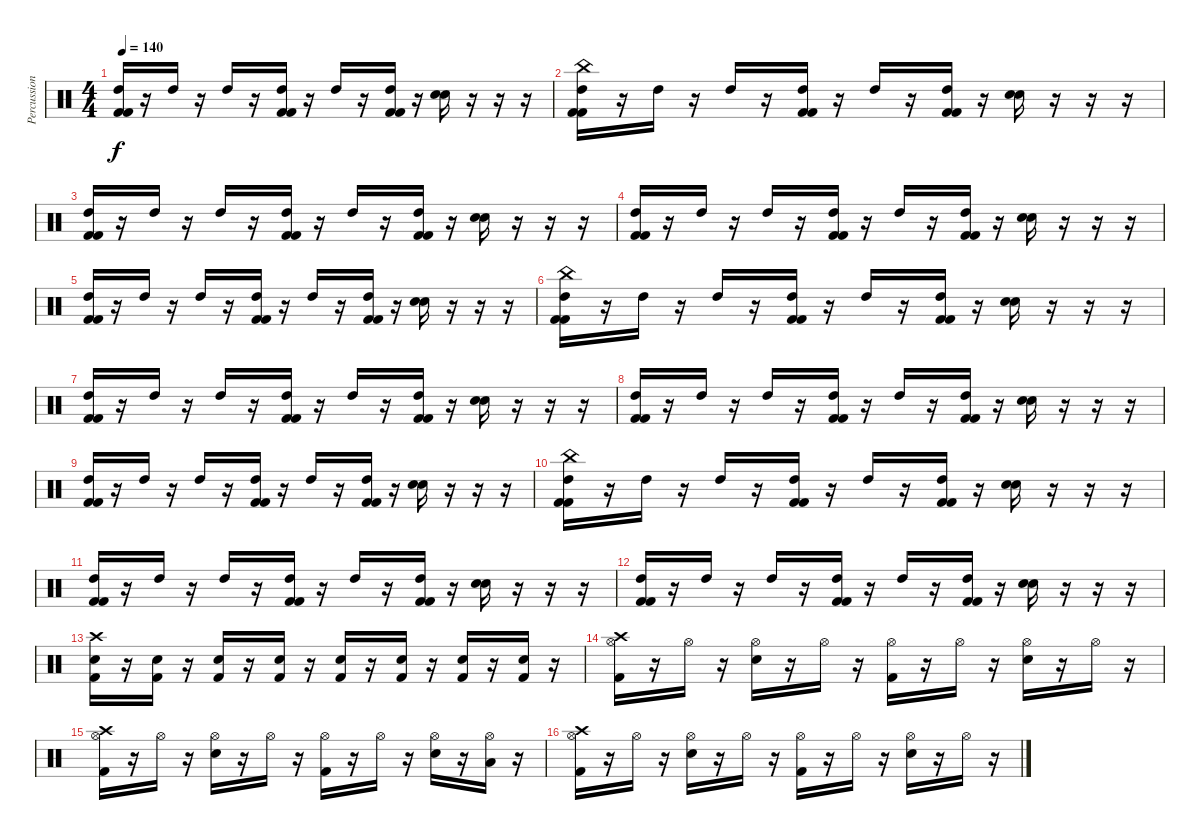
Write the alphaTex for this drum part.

\track ("Percussion" "Percussion") {instrument percussion}
\staff {score}
\articulation defaults
\ts (4 4)
\tempo 140
\clef neutral
\ks c
("High Tom (hit)" "Kick (hit) 2" "Kick (hit) 2").16{dy f} r.16 "High Tom (hit)".16 r.16 "High Tom (hit)".16 r.16 ("High Tom (hit)" "Kick (hit) 2" "Kick (hit) 2").16 r.16 "High Tom (hit)".16 r.16 ("High Tom (hit)" "Kick (hit) 2" "Kick (hit) 2").16 r.16 ("Electric Snare (hit)" "Electric Snare (hit)").16 r.16 r.16 r.16 |
("China (hit)" "High Tom (hit)" "Kick (hit) 2" "Kick (hit) 2").16 r.16 "High Tom (hit)".16 r.16 "High Tom (hit)".16 r.16 ("High Tom (hit)" "Kick (hit) 2" "Kick (hit) 2").16 r.16 "High Tom (hit)".16 r.16 ("High Tom (hit)" "Kick (hit) 2" "Kick (hit) 2").16 r.16 ("Electric Snare (hit)" "Electric Snare (hit)").16 r.16 r.16 r.16 |
("High Tom (hit)" "Kick (hit) 2" "Kick (hit) 2").16 r.16 "High Tom (hit)".16 r.16 "High Tom (hit)".16 r.16 ("High Tom (hit)" "Kick (hit) 2" "Kick (hit) 2").16 r.16 "High Tom (hit)".16 r.16 ("High Tom (hit)" "Kick (hit) 2" "Kick (hit) 2").16 r.16 ("Electric Snare (hit)" "Electric Snare (hit)").16 r.16 r.16 r.16 |
("High Tom (hit)" "Kick (hit) 2" "Kick (hit) 2").16 r.16 "High Tom (hit)".16 r.16 "High Tom (hit)".16 r.16 ("High Tom (hit)" "Kick (hit) 2" "Kick (hit) 2").16 r.16 "High Tom (hit)".16 r.16 ("High Tom (hit)" "Kick (hit) 2" "Kick (hit) 2").16 r.16 ("Electric Snare (hit)" "Electric Snare (hit)").16 r.16 r.16 r.16 |
("High Tom (hit)" "Kick (hit) 2" "Kick (hit) 2").16 r.16 "High Tom (hit)".16 r.16 "High Tom (hit)".16 r.16 ("High Tom (hit)" "Kick (hit) 2" "Kick (hit) 2").16 r.16 "High Tom (hit)".16 r.16 ("High Tom (hit)" "Kick (hit) 2" "Kick (hit) 2").16 r.16 ("Electric Snare (hit)" "Electric Snare (hit)").16 r.16 r.16 r.16 |
("China (hit)" "High Tom (hit)" "Kick (hit) 2" "Kick (hit) 2").16 r.16 "High Tom (hit)".16 r.16 "High Tom (hit)".16 r.16 ("High Tom (hit)" "Kick (hit) 2" "Kick (hit) 2").16 r.16 "High Tom (hit)".16 r.16 ("High Tom (hit)" "Kick (hit) 2" "Kick (hit) 2").16 r.16 ("Electric Snare (hit)" "Electric Snare (hit)").16 r.16 r.16 r.16 |
("High Tom (hit)" "Kick (hit) 2" "Kick (hit) 2").16 r.16 "High Tom (hit)".16 r.16 "High Tom (hit)".16 r.16 ("High Tom (hit)" "Kick (hit) 2" "Kick (hit) 2").16 r.16 "High Tom (hit)".16 r.16 ("High Tom (hit)" "Kick (hit) 2" "Kick (hit) 2").16 r.16 ("Electric Snare (hit)" "Electric Snare (hit)").16 r.16 r.16 r.16 |
("High Tom (hit)" "Kick (hit) 2" "Kick (hit) 2").16 r.16 "High Tom (hit)".16 r.16 "High Tom (hit)".16 r.16 ("High Tom (hit)" "Kick (hit) 2" "Kick (hit) 2").16 r.16 "High Tom (hit)".16 r.16 ("High Tom (hit)" "Kick (hit) 2" "Kick (hit) 2").16 r.16 ("Electric Snare (hit)" "Electric Snare (hit)").16 r.16 r.16 r.16 |
("High Tom (hit)" "Kick (hit) 2" "Kick (hit) 2").16 r.16 "High Tom (hit)".16 r.16 "High Tom (hit)".16 r.16 ("High Tom (hit)" "Kick (hit) 2" "Kick (hit) 2").16 r.16 "High Tom (hit)".16 r.16 ("High Tom (hit)" "Kick (hit) 2" "Kick (hit) 2").16 r.16 ("Electric Snare (hit)" "Electric Snare (hit)").16 r.16 r.16 r.16 |
("China (hit)" "High Tom (hit)" "Kick (hit) 2" "Kick (hit) 2").16 r.16 "High Tom (hit)".16 r.16 "High Tom (hit)".16 r.16 ("High Tom (hit)" "Kick (hit) 2" "Kick (hit) 2").16 r.16 "High Tom (hit)".16 r.16 ("High Tom (hit)" "Kick (hit) 2" "Kick (hit) 2").16 r.16 ("Electric Snare (hit)" "Electric Snare (hit)").16 r.16 r.16 r.16 |
("High Tom (hit)" "Kick (hit) 2" "Kick (hit) 2").16 r.16 "High Tom (hit)".16 r.16 "High Tom (hit)".16 r.16 ("High Tom (hit)" "Kick (hit) 2" "Kick (hit) 2").16 r.16 "High Tom (hit)".16 r.16 ("High Tom (hit)" "Kick (hit) 2" "Kick (hit) 2").16 r.16 ("Electric Snare (hit)" "Electric Snare (hit)").16 r.16 r.16 r.16 |
("High Tom (hit)" "Kick (hit) 2" "Kick (hit) 2").16 r.16 "High Tom (hit)".16 r.16 "High Tom (hit)".16 r.16 ("High Tom (hit)" "Kick (hit) 2" "Kick (hit) 2").16 r.16 "High Tom (hit)".16 r.16 ("High Tom (hit)" "Kick (hit) 2" "Kick (hit) 2").16 r.16 ("Electric Snare (hit)" "Electric Snare (hit)").16 r.16 r.16 r.16 |
("Crash high (hit)" "Electric Snare (hit)" "Kick (hit) 2").16 r.16 ("Electric Snare (hit)" "Kick (hit) 2").16 r.16 ("Electric Snare (hit)" "Kick (hit) 2").16 r.16 ("Electric Snare (hit)" "Kick (hit) 2").16 r.16 ("Electric Snare (hit)" "Kick (hit) 2").16 r.16 ("Electric Snare (hit)" "Kick (hit) 2").16 r.16 ("Electric Snare (hit)" "Kick (hit) 2").16 r.16 ("Electric Snare (hit)" "Kick (hit) 2").16 r.16 |
("Hi-Hat (open)" "Crash high (hit)" "Kick (hit) 2").16 r.16 "Hi-Hat (open)".16 r.16 ("Hi-Hat (open)" "Electric Snare (hit)").16 r.16 "Hi-Hat (open)".16 r.16 ("Hi-Hat (open)" "Kick (hit) 2").16 r.16 "Hi-Hat (open)".16 r.16 ("Hi-Hat (open)" "Electric Snare (hit)").16 r.16 "Hi-Hat (open)".16 r.16 |
("Hi-Hat (open)" "Crash high (hit)" "Kick (hit) 2").16 r.16 "Hi-Hat (open)".16 r.16 ("Hi-Hat (open)" "Electric Snare (hit)").16 r.16 "Hi-Hat (open)".16 r.16 ("Hi-Hat (open)" "Kick (hit) 2").16 r.16 "Hi-Hat (open)".16 r.16 ("Hi-Hat (open)" "Electric Snare (hit)").16 r.16 ("Hi-Hat (open)" "Low Floor Tom (hit)").16 r.16 |
("Hi-Hat (open)" "Crash high (hit)" "Kick (hit) 2").16 r.16 "Hi-Hat (open)".16 r.16 ("Hi-Hat (open)" "Electric Snare (hit)").16 r.16 "Hi-Hat (open)".16 r.16 ("Hi-Hat (open)" "Kick (hit) 2").16 r.16 "Hi-Hat (open)".16 r.16 ("Hi-Hat (open)" "Electric Snare (hit)").16 r.16 "Hi-Hat (open)".16 r.16
